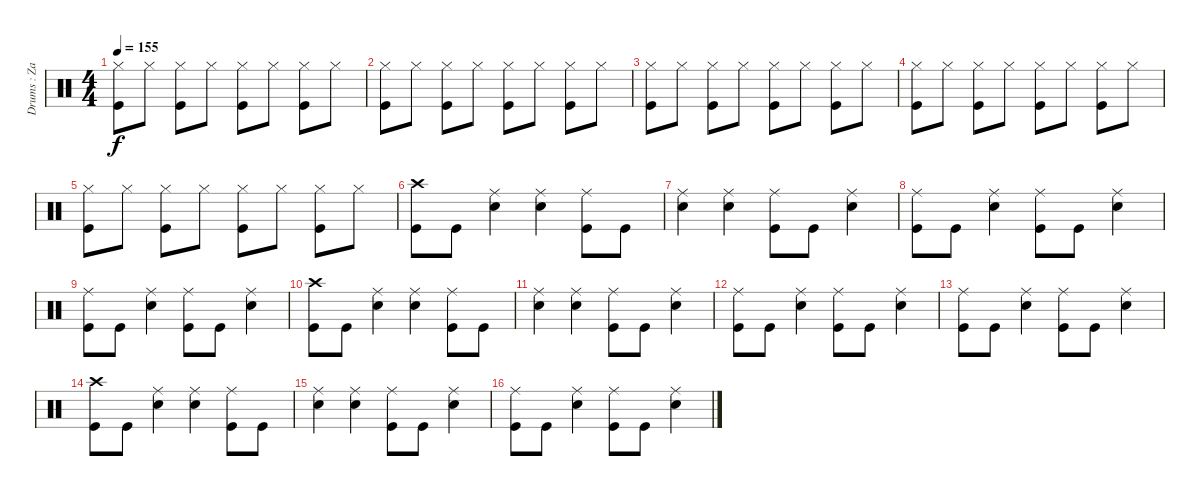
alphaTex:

\track ("Drums : Zach Lind" "Drums : Za") {instrument percussion}
\staff {score}
\articulation defaults
\ts (4 4)
\tempo 155
\clef neutral
\ks c
("Hi-Hat (closed)" "Kick (hit)").8{dy f} "Hi-Hat (closed)".8 ("Hi-Hat (closed)" "Kick (hit)").8 "Hi-Hat (closed)".8 ("Hi-Hat (closed)" "Kick (hit)").8 "Hi-Hat (closed)".8 ("Hi-Hat (closed)" "Kick (hit)").8 "Hi-Hat (closed)".8 |
("Hi-Hat (closed)" "Kick (hit)").8 "Hi-Hat (closed)".8 ("Hi-Hat (closed)" "Kick (hit)").8 "Hi-Hat (closed)".8 ("Hi-Hat (closed)" "Kick (hit)").8 "Hi-Hat (closed)".8 ("Hi-Hat (closed)" "Kick (hit)").8 "Hi-Hat (closed)".8 |
("Hi-Hat (closed)" "Kick (hit)").8 "Hi-Hat (closed)".8 ("Hi-Hat (closed)" "Kick (hit)").8 "Hi-Hat (closed)".8 ("Hi-Hat (closed)" "Kick (hit)").8 "Hi-Hat (closed)".8 ("Hi-Hat (closed)" "Kick (hit)").8 "Hi-Hat (closed)".8 |
("Hi-Hat (closed)" "Kick (hit)").8 "Hi-Hat (closed)".8 ("Hi-Hat (closed)" "Kick (hit)").8 "Hi-Hat (closed)".8 ("Hi-Hat (closed)" "Kick (hit)").8 "Hi-Hat (closed)".8 ("Hi-Hat (closed)" "Kick (hit)").8 "Hi-Hat (closed)".8 |
("Hi-Hat (closed)" "Kick (hit)").8 "Hi-Hat (closed)".8 ("Hi-Hat (closed)" "Kick (hit)").8 "Hi-Hat (closed)".8 ("Hi-Hat (closed)" "Kick (hit)").8 "Hi-Hat (closed)".8 ("Hi-Hat (closed)" "Kick (hit)").8 "Hi-Hat (closed)".8 |
("Crash high (hit)" "Kick (hit)").8 "Kick (hit)".8 ("Ride (middle)" "Snare (hit) 2").4 ("Ride (middle)" "Snare (hit) 2").4 ("Ride (middle)" "Kick (hit)").8 "Kick (hit)".8 |
("Ride (middle)" "Snare (hit) 2").4 ("Ride (middle)" "Snare (hit) 2").4 ("Ride (middle)" "Kick (hit)").8 "Kick (hit)".8 ("Ride (middle)" "Snare (hit) 2").4 |
("Ride (middle)" "Kick (hit)").8 "Kick (hit)".8 ("Ride (middle)" "Snare (hit) 2").4 ("Ride (middle)" "Kick (hit)").8 "Kick (hit)".8 ("Ride (middle)" "Snare (hit) 2").4 |
("Ride (middle)" "Kick (hit)").8 "Kick (hit)".8 ("Ride (middle)" "Snare (hit) 2").4 ("Ride (middle)" "Kick (hit)").8 "Kick (hit)".8 ("Ride (middle)" "Snare (hit) 2").4 |
("Crash high (hit)" "Kick (hit)").8 "Kick (hit)".8 ("Ride (middle)" "Snare (hit) 2").4 ("Ride (middle)" "Snare (hit) 2").4 ("Ride (middle)" "Kick (hit)").8 "Kick (hit)".8 |
("Ride (middle)" "Snare (hit) 2").4 ("Ride (middle)" "Snare (hit) 2").4 ("Ride (middle)" "Kick (hit)").8 "Kick (hit)".8 ("Ride (middle)" "Snare (hit) 2").4 |
("Ride (middle)" "Kick (hit)").8 "Kick (hit)".8 ("Ride (middle)" "Snare (hit) 2").4 ("Ride (middle)" "Kick (hit)").8 "Kick (hit)".8 ("Ride (middle)" "Snare (hit) 2").4 |
("Ride (middle)" "Kick (hit)").8 "Kick (hit)".8 ("Ride (middle)" "Snare (hit) 2").4 ("Ride (middle)" "Kick (hit)").8 "Kick (hit)".8 ("Ride (middle)" "Snare (hit) 2").4 |
("Crash high (hit)" "Kick (hit)").8 "Kick (hit)".8 ("Ride (middle)" "Snare (hit) 2").4 ("Ride (middle)" "Snare (hit) 2").4 ("Ride (middle)" "Kick (hit)").8 "Kick (hit)".8 |
("Ride (middle)" "Snare (hit) 2").4 ("Ride (middle)" "Snare (hit) 2").4 ("Ride (middle)" "Kick (hit)").8 "Kick (hit)".8 ("Ride (middle)" "Snare (hit) 2").4 |
("Ride (middle)" "Kick (hit)").8 "Kick (hit)".8 ("Ride (middle)" "Snare (hit) 2").4 ("Ride (middle)" "Kick (hit)").8 "Kick (hit)".8 ("Ride (middle)" "Snare (hit) 2").4
